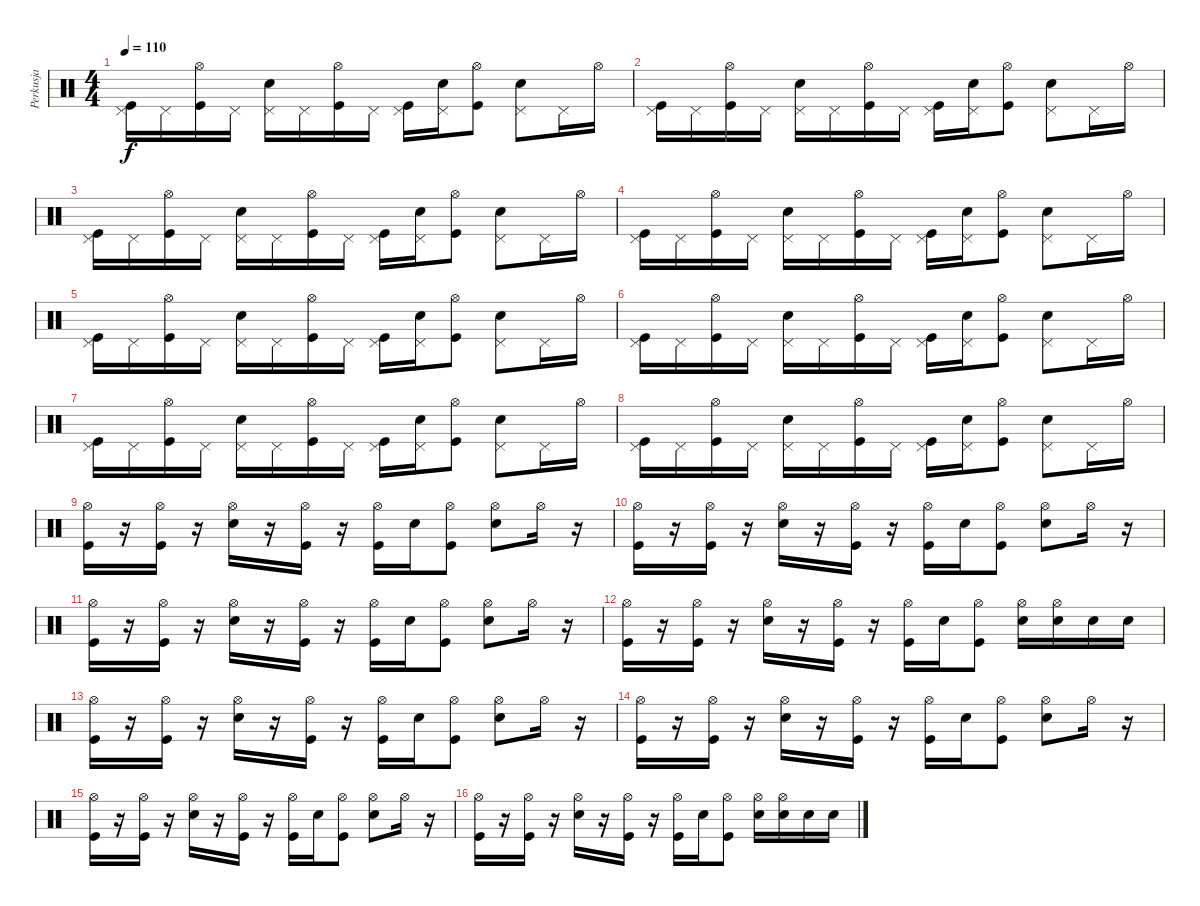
\track ("Perkusja" "Perkusja") {instrument percussion}
\staff {score}
\articulation defaults
\ts (4 4)
\tempo 110
\clef neutral
\ks c
("Kick (hit)" "Pedal Hi-Hat (hit)").16{dy f} "Pedal Hi-Hat (hit)".16 ("Kick (hit)" "Hi-Hat (open)").16 "Pedal Hi-Hat (hit)".16 ("Snare (hit) 2" "Pedal Hi-Hat (hit)").16 "Pedal Hi-Hat (hit)".16 ("Kick (hit)" "Hi-Hat (open)").16 "Pedal Hi-Hat (hit)".16 ("Kick (hit)" "Pedal Hi-Hat (hit)").16 ("Snare (hit) 2" "Pedal Hi-Hat (hit)").16 ("Kick (hit)" "Hi-Hat (open)").8 ("Snare (hit) 2" "Pedal Hi-Hat (hit)").8 "Pedal Hi-Hat (hit)".16 "Hi-Hat (open)".16 |
("Kick (hit)" "Pedal Hi-Hat (hit)").16 "Pedal Hi-Hat (hit)".16 ("Kick (hit)" "Hi-Hat (open)").16 "Pedal Hi-Hat (hit)".16 ("Snare (hit) 2" "Pedal Hi-Hat (hit)").16 "Pedal Hi-Hat (hit)".16 ("Kick (hit)" "Hi-Hat (open)").16 "Pedal Hi-Hat (hit)".16 ("Kick (hit)" "Pedal Hi-Hat (hit)").16 ("Snare (hit) 2" "Pedal Hi-Hat (hit)").16 ("Kick (hit)" "Hi-Hat (open)").8 ("Snare (hit) 2" "Pedal Hi-Hat (hit)").8 "Pedal Hi-Hat (hit)".16 "Hi-Hat (open)".16 |
("Kick (hit)" "Pedal Hi-Hat (hit)").16 "Pedal Hi-Hat (hit)".16 ("Kick (hit)" "Hi-Hat (open)").16 "Pedal Hi-Hat (hit)".16 ("Snare (hit) 2" "Pedal Hi-Hat (hit)").16 "Pedal Hi-Hat (hit)".16 ("Kick (hit)" "Hi-Hat (open)").16 "Pedal Hi-Hat (hit)".16 ("Kick (hit)" "Pedal Hi-Hat (hit)").16 ("Snare (hit) 2" "Pedal Hi-Hat (hit)").16 ("Kick (hit)" "Hi-Hat (open)").8 ("Snare (hit) 2" "Pedal Hi-Hat (hit)").8 "Pedal Hi-Hat (hit)".16 "Hi-Hat (open)".16 |
("Kick (hit)" "Pedal Hi-Hat (hit)").16 "Pedal Hi-Hat (hit)".16 ("Kick (hit)" "Hi-Hat (open)").16 "Pedal Hi-Hat (hit)".16 ("Snare (hit) 2" "Pedal Hi-Hat (hit)").16 "Pedal Hi-Hat (hit)".16 ("Kick (hit)" "Hi-Hat (open)").16 "Pedal Hi-Hat (hit)".16 ("Kick (hit)" "Pedal Hi-Hat (hit)").16 ("Snare (hit) 2" "Pedal Hi-Hat (hit)").16 ("Kick (hit)" "Hi-Hat (open)").8 ("Snare (hit) 2" "Pedal Hi-Hat (hit)").8 "Pedal Hi-Hat (hit)".16 "Hi-Hat (open)".16 |
("Kick (hit)" "Pedal Hi-Hat (hit)").16 "Pedal Hi-Hat (hit)".16 ("Kick (hit)" "Hi-Hat (open)").16 "Pedal Hi-Hat (hit)".16 ("Snare (hit) 2" "Pedal Hi-Hat (hit)").16 "Pedal Hi-Hat (hit)".16 ("Kick (hit)" "Hi-Hat (open)").16 "Pedal Hi-Hat (hit)".16 ("Kick (hit)" "Pedal Hi-Hat (hit)").16 ("Snare (hit) 2" "Pedal Hi-Hat (hit)").16 ("Kick (hit)" "Hi-Hat (open)").8 ("Snare (hit) 2" "Pedal Hi-Hat (hit)").8 "Pedal Hi-Hat (hit)".16 "Hi-Hat (open)".16 |
("Kick (hit)" "Pedal Hi-Hat (hit)").16 "Pedal Hi-Hat (hit)".16 ("Kick (hit)" "Hi-Hat (open)").16 "Pedal Hi-Hat (hit)".16 ("Snare (hit) 2" "Pedal Hi-Hat (hit)").16 "Pedal Hi-Hat (hit)".16 ("Kick (hit)" "Hi-Hat (open)").16 "Pedal Hi-Hat (hit)".16 ("Kick (hit)" "Pedal Hi-Hat (hit)").16 ("Snare (hit) 2" "Pedal Hi-Hat (hit)").16 ("Kick (hit)" "Hi-Hat (open)").8 ("Snare (hit) 2" "Pedal Hi-Hat (hit)").8 "Pedal Hi-Hat (hit)".16 "Hi-Hat (open)".16 |
("Kick (hit)" "Pedal Hi-Hat (hit)").16 "Pedal Hi-Hat (hit)".16 ("Kick (hit)" "Hi-Hat (open)").16 "Pedal Hi-Hat (hit)".16 ("Snare (hit) 2" "Pedal Hi-Hat (hit)").16 "Pedal Hi-Hat (hit)".16 ("Kick (hit)" "Hi-Hat (open)").16 "Pedal Hi-Hat (hit)".16 ("Kick (hit)" "Pedal Hi-Hat (hit)").16 ("Snare (hit) 2" "Pedal Hi-Hat (hit)").16 ("Kick (hit)" "Hi-Hat (open)").8 ("Snare (hit) 2" "Pedal Hi-Hat (hit)").8 "Pedal Hi-Hat (hit)".16 "Hi-Hat (open)".16 |
("Kick (hit)" "Pedal Hi-Hat (hit)").16 "Pedal Hi-Hat (hit)".16 ("Kick (hit)" "Hi-Hat (open)").16 "Pedal Hi-Hat (hit)".16 ("Snare (hit) 2" "Pedal Hi-Hat (hit)").16 "Pedal Hi-Hat (hit)".16 ("Kick (hit)" "Hi-Hat (open)").16 "Pedal Hi-Hat (hit)".16 ("Kick (hit)" "Pedal Hi-Hat (hit)").16 ("Snare (hit) 2" "Pedal Hi-Hat (hit)").16 ("Kick (hit)" "Hi-Hat (open)").8 ("Snare (hit) 2" "Pedal Hi-Hat (hit)").8 "Pedal Hi-Hat (hit)".16 "Hi-Hat (open)".16 |
("Kick (hit)" "Hi-Hat (open)").16 r.16 ("Kick (hit)" "Hi-Hat (open)").16 r.16 ("Snare (hit) 2" "Hi-Hat (open)").16 r.16 ("Kick (hit)" "Hi-Hat (open)").16 r.16 ("Kick (hit)" "Hi-Hat (open)").16 "Snare (hit) 2".16 ("Kick (hit)" "Hi-Hat (open)").8 ("Snare (hit) 2" "Hi-Hat (open)").8 "Hi-Hat (open)".16 r.16 |
("Kick (hit)" "Hi-Hat (open)").16 r.16 ("Kick (hit)" "Hi-Hat (open)").16 r.16 ("Snare (hit) 2" "Hi-Hat (open)").16 r.16 ("Kick (hit)" "Hi-Hat (open)").16 r.16 ("Kick (hit)" "Hi-Hat (open)").16 "Snare (hit) 2".16 ("Kick (hit)" "Hi-Hat (open)").8 ("Snare (hit) 2" "Hi-Hat (open)").8 "Hi-Hat (open)".16 r.16 |
("Kick (hit)" "Hi-Hat (open)").16 r.16 ("Kick (hit)" "Hi-Hat (open)").16 r.16 ("Snare (hit) 2" "Hi-Hat (open)").16 r.16 ("Kick (hit)" "Hi-Hat (open)").16 r.16 ("Kick (hit)" "Hi-Hat (open)").16 "Snare (hit) 2".16 ("Kick (hit)" "Hi-Hat (open)").8 ("Snare (hit) 2" "Hi-Hat (open)").8 "Hi-Hat (open)".16 r.16 |
("Kick (hit)" "Hi-Hat (open)").16 r.16 ("Kick (hit)" "Hi-Hat (open)").16 r.16 ("Snare (hit) 2" "Hi-Hat (open)").16 r.16 ("Kick (hit)" "Hi-Hat (open)").16 r.16 ("Kick (hit)" "Hi-Hat (open)").16 "Snare (hit) 2".16 ("Kick (hit)" "Hi-Hat (open)").8 ("Snare (hit) 2" "Hi-Hat (open)").16 ("Snare (hit) 2" "Hi-Hat (open)").16 "Snare (hit) 2".16 "Snare (hit) 2".16 |
("Kick (hit)" "Hi-Hat (open)").16 r.16 ("Kick (hit)" "Hi-Hat (open)").16 r.16 ("Snare (hit) 2" "Hi-Hat (open)").16 r.16 ("Kick (hit)" "Hi-Hat (open)").16 r.16 ("Kick (hit)" "Hi-Hat (open)").16 "Snare (hit) 2".16 ("Kick (hit)" "Hi-Hat (open)").8 ("Snare (hit) 2" "Hi-Hat (open)").8 "Hi-Hat (open)".16 r.16 |
("Kick (hit)" "Hi-Hat (open)").16 r.16 ("Kick (hit)" "Hi-Hat (open)").16 r.16 ("Snare (hit) 2" "Hi-Hat (open)").16 r.16 ("Kick (hit)" "Hi-Hat (open)").16 r.16 ("Kick (hit)" "Hi-Hat (open)").16 "Snare (hit) 2".16 ("Kick (hit)" "Hi-Hat (open)").8 ("Snare (hit) 2" "Hi-Hat (open)").8 "Hi-Hat (open)".16 r.16 |
("Kick (hit)" "Hi-Hat (open)").16 r.16 ("Kick (hit)" "Hi-Hat (open)").16 r.16 ("Snare (hit) 2" "Hi-Hat (open)").16 r.16 ("Kick (hit)" "Hi-Hat (open)").16 r.16 ("Kick (hit)" "Hi-Hat (open)").16 "Snare (hit) 2".16 ("Kick (hit)" "Hi-Hat (open)").8 ("Snare (hit) 2" "Hi-Hat (open)").8 "Hi-Hat (open)".16 r.16 |
("Kick (hit)" "Hi-Hat (open)").16 r.16 ("Kick (hit)" "Hi-Hat (open)").16 r.16 ("Snare (hit) 2" "Hi-Hat (open)").16 r.16 ("Kick (hit)" "Hi-Hat (open)").16 r.16 ("Kick (hit)" "Hi-Hat (open)").16 "Snare (hit) 2".16 ("Kick (hit)" "Hi-Hat (open)").8 ("Snare (hit) 2" "Hi-Hat (open)").16 ("Snare (hit) 2" "Hi-Hat (open)").16 "Snare (hit) 2".16 "Snare (hit) 2".16
